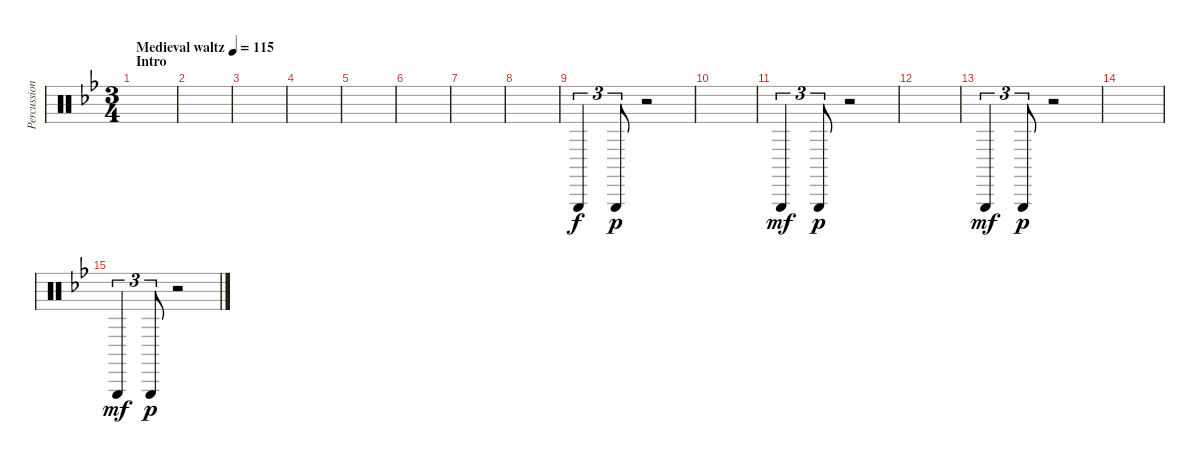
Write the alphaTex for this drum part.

\track ("Percussion" "Percussion") {instrument percussion}
\staff {score}
\articulation defaults
\ts (3 4)
\section ("" "Intro")
\tempo (115 "Medieval waltz")
\clef neutral
\ks gminor
|
|
|
|
|
|
|
|
"Triangle (hit)".4{tu (3 2)} "Triangle (hit)".8{tu (3 2) dy p} r.2 |
|
"Triangle (hit)".4{tu (3 2) dy mf} "Triangle (hit)".8{tu (3 2) dy p} r.2 |
|
"Triangle (hit)".4{tu (3 2) dy mf} "Triangle (hit)".8{tu (3 2) dy p} r.2 |
|
"Triangle (hit)".4{tu (3 2) dy mf} "Triangle (hit)".8{tu (3 2) dy p} r.2
